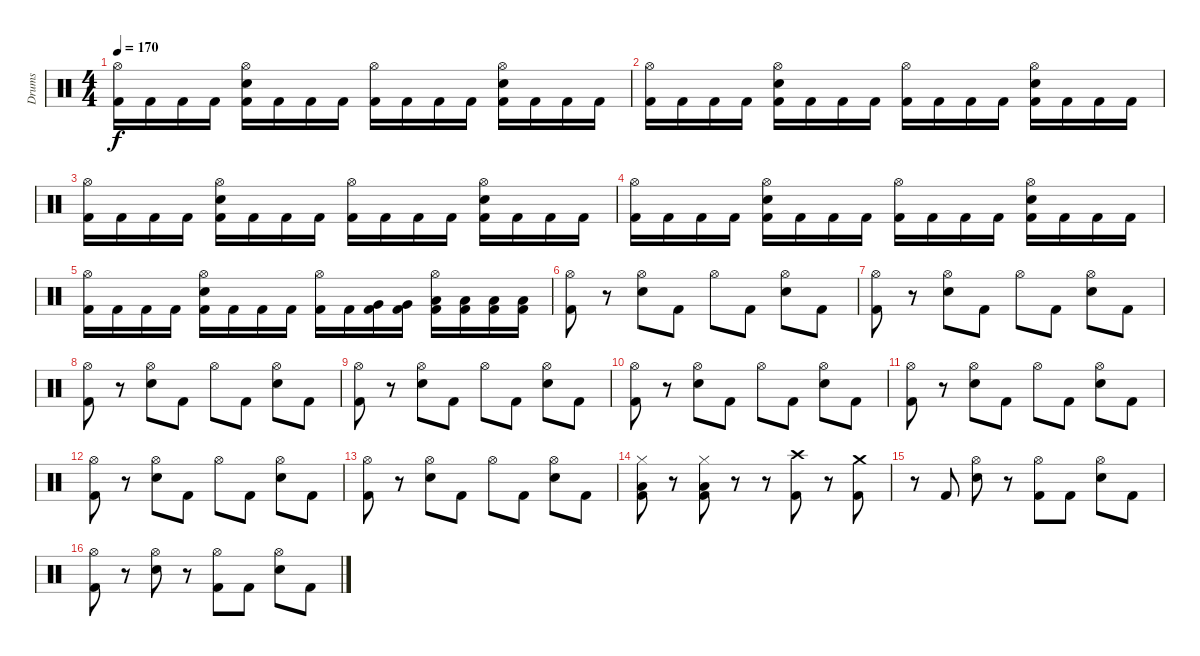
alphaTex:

\track ("Drums" "Drums") {instrument percussion}
\staff {score}
\articulation defaults
\ts (4 4)
\tempo 170
\clef neutral
\ks c
("Hi-Hat (open)" "Kick (hit) 2").16{dy f} "Kick (hit) 2".16 "Kick (hit) 2".16 "Kick (hit) 2".16 ("Hi-Hat (open)" "Electric Snare (hit)" "Kick (hit) 2").16 "Kick (hit) 2".16 "Kick (hit) 2".16 "Kick (hit) 2".16 ("Hi-Hat (open)" "Kick (hit) 2").16 "Kick (hit) 2".16 "Kick (hit) 2".16 "Kick (hit) 2".16 ("Hi-Hat (open)" "Electric Snare (hit)" "Kick (hit) 2").16 "Kick (hit) 2".16 "Kick (hit) 2".16 "Kick (hit) 2".16 |
("Hi-Hat (open)" "Kick (hit) 2").16 "Kick (hit) 2".16 "Kick (hit) 2".16 "Kick (hit) 2".16 ("Hi-Hat (open)" "Electric Snare (hit)" "Kick (hit) 2").16 "Kick (hit) 2".16 "Kick (hit) 2".16 "Kick (hit) 2".16 ("Hi-Hat (open)" "Kick (hit) 2").16 "Kick (hit) 2".16 "Kick (hit) 2".16 "Kick (hit) 2".16 ("Hi-Hat (open)" "Electric Snare (hit)" "Kick (hit) 2").16 "Kick (hit) 2".16 "Kick (hit) 2".16 "Kick (hit) 2".16 |
("Hi-Hat (open)" "Kick (hit) 2").16 "Kick (hit) 2".16 "Kick (hit) 2".16 "Kick (hit) 2".16 ("Hi-Hat (open)" "Electric Snare (hit)" "Kick (hit) 2").16 "Kick (hit) 2".16 "Kick (hit) 2".16 "Kick (hit) 2".16 ("Hi-Hat (open)" "Kick (hit) 2").16 "Kick (hit) 2".16 "Kick (hit) 2".16 "Kick (hit) 2".16 ("Hi-Hat (open)" "Electric Snare (hit)" "Kick (hit) 2").16 "Kick (hit) 2".16 "Kick (hit) 2".16 "Kick (hit) 2".16 |
("Hi-Hat (open)" "Kick (hit) 2").16 "Kick (hit) 2".16 "Kick (hit) 2".16 "Kick (hit) 2".16 ("Hi-Hat (open)" "Electric Snare (hit)" "Kick (hit) 2").16 "Kick (hit) 2".16 "Kick (hit) 2".16 "Kick (hit) 2".16 ("Hi-Hat (open)" "Kick (hit) 2").16 "Kick (hit) 2".16 "Kick (hit) 2".16 "Kick (hit) 2".16 ("Hi-Hat (open)" "Electric Snare (hit)" "Kick (hit) 2").16 "Kick (hit) 2".16 "Kick (hit) 2".16 "Kick (hit) 2".16 |
("Hi-Hat (open)" "Kick (hit) 2").16 "Kick (hit) 2".16 "Kick (hit) 2".16 "Kick (hit) 2".16 ("Hi-Hat (open)" "Electric Snare (hit)" "Kick (hit) 2").16 "Kick (hit) 2".16 "Kick (hit) 2".16 "Kick (hit) 2".16 ("Hi-Hat (open)" "Kick (hit) 2").16 "Kick (hit) 2".16 ("Very Low Tom (hit)" "Kick (hit) 2").16 ("Very Low Tom (hit)" "Kick (hit) 2").16 ("Hi-Hat (open)" "Low Floor Tom (hit)" "Kick (hit) 2").16 ("Low Floor Tom (hit)" "Kick (hit) 2").16 ("Low Floor Tom (hit)" "Kick (hit) 2").16 ("Low Floor Tom (hit)" "Kick (hit) 2").16 |
("Hi-Hat (open)" "Kick (hit) 2").8 r.8 ("Hi-Hat (open)" "Electric Snare (hit)").8 "Kick (hit) 2".8 "Hi-Hat (open)".8 "Kick (hit) 2".8 ("Hi-Hat (open)" "Electric Snare (hit)").8 "Kick (hit) 2".8 |
("Hi-Hat (open)" "Kick (hit) 2").8 r.8 ("Hi-Hat (open)" "Electric Snare (hit)").8 "Kick (hit) 2".8 "Hi-Hat (open)".8 "Kick (hit) 2".8 ("Hi-Hat (open)" "Electric Snare (hit)").8 "Kick (hit) 2".8 |
("Hi-Hat (open)" "Kick (hit) 2").8 r.8 ("Hi-Hat (open)" "Electric Snare (hit)").8 "Kick (hit) 2".8 "Hi-Hat (open)".8 "Kick (hit) 2".8 ("Hi-Hat (open)" "Electric Snare (hit)").8 "Kick (hit) 2".8 |
("Hi-Hat (open)" "Kick (hit) 2").8 r.8 ("Hi-Hat (open)" "Electric Snare (hit)").8 "Kick (hit) 2".8 "Hi-Hat (open)".8 "Kick (hit) 2".8 ("Hi-Hat (open)" "Electric Snare (hit)").8 "Kick (hit) 2".8 |
("Hi-Hat (open)" "Kick (hit) 2").8 r.8 ("Hi-Hat (open)" "Electric Snare (hit)").8 "Kick (hit) 2".8 "Hi-Hat (open)".8 "Kick (hit) 2".8 ("Hi-Hat (open)" "Electric Snare (hit)").8 "Kick (hit) 2".8 |
("Hi-Hat (open)" "Kick (hit) 2").8 r.8 ("Hi-Hat (open)" "Electric Snare (hit)").8 "Kick (hit) 2".8 "Hi-Hat (open)".8 "Kick (hit) 2".8 ("Hi-Hat (open)" "Electric Snare (hit)").8 "Kick (hit) 2".8 |
("Hi-Hat (open)" "Kick (hit) 2").8 r.8 ("Hi-Hat (open)" "Electric Snare (hit)").8 "Kick (hit) 2".8 "Hi-Hat (open)".8 "Kick (hit) 2".8 ("Hi-Hat (open)" "Electric Snare (hit)").8 "Kick (hit) 2".8 |
("Hi-Hat (open)" "Kick (hit) 2").8 r.8 ("Hi-Hat (open)" "Electric Snare (hit)").8 "Kick (hit) 2".8 "Hi-Hat (open)".8 "Kick (hit) 2".8 ("Hi-Hat (open)" "Electric Snare (hit)").8 "Kick (hit) 2".8 |
("Hi-Hat (closed)" "Low Floor Tom (hit)" "Kick (hit) 2").8 r.8 ("Hi-Hat (closed)" "Low Floor Tom (hit)" "Kick (hit) 2").8 r.8 r.8 ("Crash high (hit)" "Kick (hit) 2").8 r.8 ("Crash medium (hit)" "Kick (hit) 2").8 |
r.8 "Kick (hit) 2".8 ("Hi-Hat (open)" "Electric Snare (hit)").8 r.8 ("Hi-Hat (open)" "Kick (hit) 2").8 "Kick (hit) 2".8 ("Hi-Hat (open)" "Electric Snare (hit)").8 "Kick (hit) 2".8 |
("Hi-Hat (open)" "Kick (hit) 2").8 r.8 ("Hi-Hat (open)" "Electric Snare (hit)").8 r.8 ("Hi-Hat (open)" "Kick (hit) 2").8 "Kick (hit) 2".8 ("Hi-Hat (open)" "Electric Snare (hit)").8 "Kick (hit) 2".8
